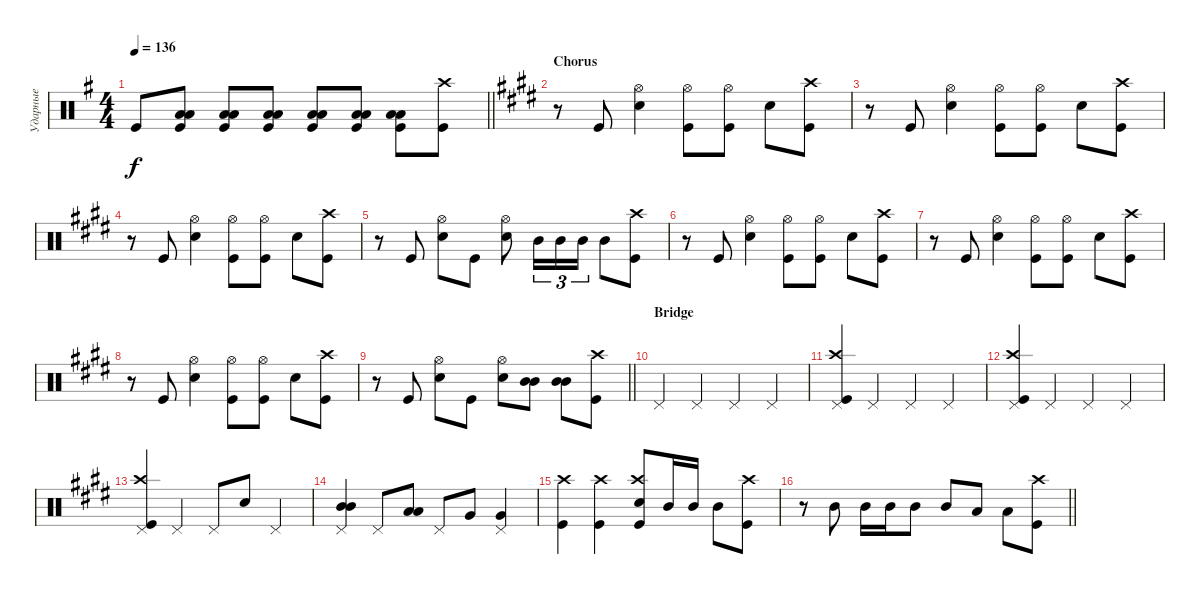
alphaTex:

\track ("Ударные" "Ударные") {instrument percussion}
\staff {score}
\articulation defaults
\ts (4 4)
\tempo 136
\clef neutral
\barLineRight lightlight
\ks eminor "Kick (hit)".8{dy f}
("Kick (hit)" "Low Tom (hit)" "Low Tom (hit)").8{bd 120} ("Kick (hit)" "Low Tom (hit)" "Low Tom (hit)").8{bd 120} ("Kick (hit)" "Low Tom (hit)" "Low Tom (hit)").8{bd 120} ("Kick (hit)" "Low Tom (hit)" "Low Tom (hit)").8{bd 120} ("Kick (hit)" "Low Tom (hit)" "Low Tom (hit)").8{bd 120} ("Kick (hit)" "Low Tom (hit)" "Low Tom (hit)").8{bd 120} ("Kick (hit)" "Crash high (hit)").8 |
\section ("" "Chorus")
\ks c#minor
r.8 "Kick (hit)".8 ("Snare (hit) 2" "Hi-Hat (open)").4 ("Kick (hit)" "Hi-Hat (open)").8 ("Kick (hit)" "Hi-Hat (open)").8 "Snare (hit) 2".8 ("Kick (hit)" "Crash high (hit)").8 |
r.8 "Kick (hit)".8 ("Snare (hit) 2" "Hi-Hat (open)").4 ("Kick (hit)" "Hi-Hat (open)").8 ("Kick (hit)" "Hi-Hat (open)").8 "Snare (hit) 2".8 ("Kick (hit)" "Crash high (hit)").8 |
r.8 "Kick (hit)".8 ("Snare (hit) 2" "Hi-Hat (open)").4 ("Kick (hit)" "Hi-Hat (open)").8 ("Kick (hit)" "Hi-Hat (open)").8 "Snare (hit) 2".8 ("Kick (hit)" "Crash high (hit)").8 |
r.8 "Kick (hit)".8 ("Snare (hit) 2" "Hi-Hat (open)").8 "Kick (hit)".8 ("Snare (hit) 2" "Hi-Hat (open)").8 "Mid Tom (hit)".16{tu (3 2)} "Mid Tom (hit)".16{tu (3 2)} "Mid Tom (hit)".16{tu (3 2)} "Mid Tom (hit)".8 ("Kick (hit)" "Crash high (hit)").8 |
r.8 "Kick (hit)".8 ("Snare (hit) 2" "Hi-Hat (open)").4 ("Kick (hit)" "Hi-Hat (open)").8 ("Kick (hit)" "Hi-Hat (open)").8 "Snare (hit) 2".8 ("Kick (hit)" "Crash high (hit)").8 |
r.8 "Kick (hit)".8 ("Snare (hit) 2" "Hi-Hat (open)").4 ("Kick (hit)" "Hi-Hat (open)").8 ("Kick (hit)" "Hi-Hat (open)").8 "Snare (hit) 2".8 ("Kick (hit)" "Crash high (hit)").8 |
r.8 "Kick (hit)".8 ("Snare (hit) 2" "Hi-Hat (open)").4 ("Kick (hit)" "Hi-Hat (open)").8 ("Kick (hit)" "Hi-Hat (open)").8 "Snare (hit) 2".8 ("Kick (hit)" "Crash high (hit)").8 |
\barLineRight lightlight
r.8 "Kick (hit)".8 ("Snare (hit) 2" "Hi-Hat (open)").8 "Kick (hit)".8 ("Snare (hit) 2" "Hi-Hat (open)").8 ("Mid Tom (hit)" "Mid Tom (hit)").8{bd 120} ("Mid Tom (hit)" "Mid Tom (hit)").8{bd 120} ("Kick (hit)" "Crash high (hit)").8 |
\section ("" "Bridge")
"Pedal Hi-Hat (hit)".4 "Pedal Hi-Hat (hit)".4 "Pedal Hi-Hat (hit)".4 "Pedal Hi-Hat (hit)".4 |
("Kick (hit)" "Crash high (hit)" "Pedal Hi-Hat (hit)").4 "Pedal Hi-Hat (hit)".4 "Pedal Hi-Hat (hit)".4 "Pedal Hi-Hat (hit)".4 |
("Kick (hit)" "Crash high (hit)" "Pedal Hi-Hat (hit)").4 "Pedal Hi-Hat (hit)".4 "Pedal Hi-Hat (hit)".4 "Pedal Hi-Hat (hit)".4 |
("Kick (hit)" "Crash high (hit)" "Pedal Hi-Hat (hit)").4 "Pedal Hi-Hat (hit)".4 "Pedal Hi-Hat (hit)".8 "Snare (hit) 2".8 "Pedal Hi-Hat (hit)".4 |
("Mid Tom (hit)" "Mid Tom (hit)" "Pedal Hi-Hat (hit)").4{bd 240} "Pedal Hi-Hat (hit)".8 ("Low Tom (hit)" "Low Tom (hit)").8{bd 240} "Pedal Hi-Hat (hit)".8 "Very Low Tom (hit)".8 ("Very Low Tom (hit)" "Pedal Hi-Hat (hit)").4 |
("Kick (hit)" "Crash high (hit)").4 ("Kick (hit)" "Crash high (hit)").4 ("Snare (hit) 2" "Kick (hit)" "Crash high (hit)").8 "Mid Tom (hit)".16 "Mid Tom (hit)".16 "Mid Tom (hit)".8 ("Crash high (hit)" "Kick (hit)").8 |
\barLineRight lightlight
r.8 "Mid Tom (hit)".8 "Mid Tom (hit)".16 "Mid Tom (hit)".16 "Mid Tom (hit)".8 "Mid Tom (hit)".8 "Low Tom (hit)".8 "Low Tom (hit)".8 ("Kick (hit)" "Crash high (hit)").8
